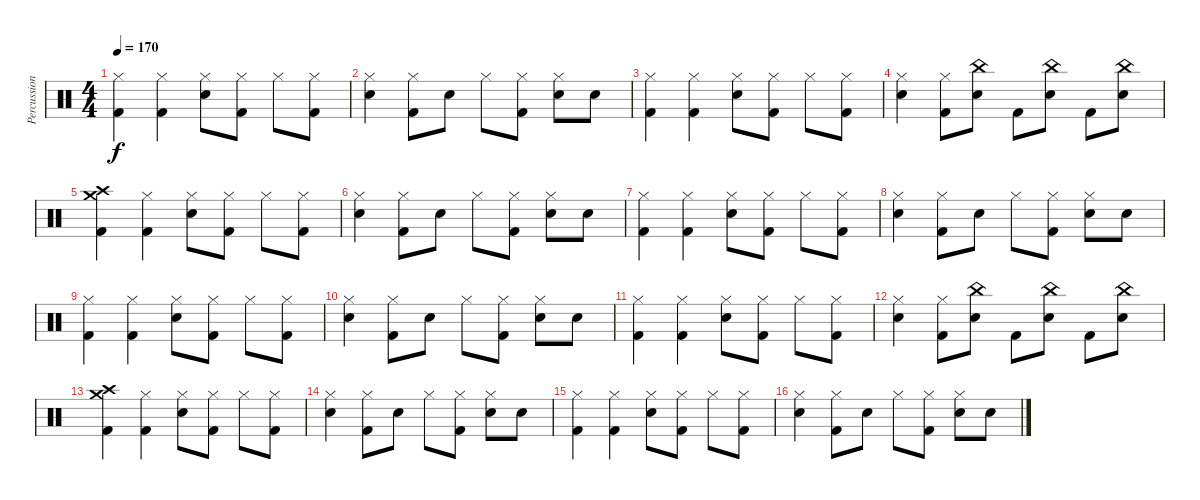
\track ("Percussions" "Percussion") {instrument percussion}
\staff {score}
\articulation defaults
\ts (4 4)
\tempo 170
\clef neutral
\ks c
("Hi-Hat (closed)" "Kick (hit) 2").4{dy f} ("Hi-Hat (closed)" "Kick (hit) 2").4 ("Hi-Hat (closed)" "Electric Snare (hit)").8 ("Hi-Hat (closed)" "Kick (hit) 2").8 "Hi-Hat (closed)".8 ("Hi-Hat (closed)" "Kick (hit) 2").8 |
("Hi-Hat (closed)" "Electric Snare (hit)").4 ("Hi-Hat (closed)" "Kick (hit) 2").8 "Electric Snare (hit)".8 "Hi-Hat (closed)".8 ("Hi-Hat (closed)" "Kick (hit) 2").8 ("Hi-Hat (closed)" "Electric Snare (hit)").8 "Electric Snare (hit)".8 |
("Hi-Hat (closed)" "Kick (hit) 2").4 ("Hi-Hat (closed)" "Kick (hit) 2").4 ("Hi-Hat (closed)" "Electric Snare (hit)").8 ("Hi-Hat (closed)" "Kick (hit) 2").8 "Hi-Hat (closed)".8 ("Hi-Hat (closed)" "Kick (hit) 2").8 |
("Hi-Hat (closed)" "Electric Snare (hit)").4 ("Hi-Hat (closed)" "Kick (hit) 2").8 ("China (hit)" "Electric Snare (hit)").8 "Kick (hit) 2".8 ("China (hit)" "Electric Snare (hit)").8 "Kick (hit) 2".8 ("China (hit)" "Electric Snare (hit)").8 |
("Crash medium (hit)" "Crash high (hit)" "Kick (hit) 2").4 ("Hi-Hat (closed)" "Kick (hit) 2").4 ("Hi-Hat (closed)" "Electric Snare (hit)").8 ("Hi-Hat (closed)" "Kick (hit) 2").8 "Hi-Hat (closed)".8 ("Hi-Hat (closed)" "Kick (hit) 2").8 |
("Hi-Hat (closed)" "Electric Snare (hit)").4 ("Hi-Hat (closed)" "Kick (hit) 2").8 "Electric Snare (hit)".8 "Hi-Hat (closed)".8 ("Hi-Hat (closed)" "Kick (hit) 2").8 ("Hi-Hat (closed)" "Electric Snare (hit)").8 "Electric Snare (hit)".8 |
("Hi-Hat (closed)" "Kick (hit) 2").4 ("Hi-Hat (closed)" "Kick (hit) 2").4 ("Hi-Hat (closed)" "Electric Snare (hit)").8 ("Hi-Hat (closed)" "Kick (hit) 2").8 "Hi-Hat (closed)".8 ("Hi-Hat (closed)" "Kick (hit) 2").8 |
("Hi-Hat (closed)" "Electric Snare (hit)").4 ("Hi-Hat (closed)" "Kick (hit) 2").8 "Electric Snare (hit)".8 "Hi-Hat (closed)".8 ("Hi-Hat (closed)" "Kick (hit) 2").8 ("Hi-Hat (closed)" "Electric Snare (hit)").8 "Electric Snare (hit)".8 |
("Hi-Hat (closed)" "Kick (hit) 2").4 ("Hi-Hat (closed)" "Kick (hit) 2").4 ("Hi-Hat (closed)" "Electric Snare (hit)").8 ("Hi-Hat (closed)" "Kick (hit) 2").8 "Hi-Hat (closed)".8 ("Hi-Hat (closed)" "Kick (hit) 2").8 |
("Hi-Hat (closed)" "Electric Snare (hit)").4 ("Hi-Hat (closed)" "Kick (hit) 2").8 "Electric Snare (hit)".8 "Hi-Hat (closed)".8 ("Hi-Hat (closed)" "Kick (hit) 2").8 ("Hi-Hat (closed)" "Electric Snare (hit)").8 "Electric Snare (hit)".8 |
("Hi-Hat (closed)" "Kick (hit) 2").4 ("Hi-Hat (closed)" "Kick (hit) 2").4 ("Hi-Hat (closed)" "Electric Snare (hit)").8 ("Hi-Hat (closed)" "Kick (hit) 2").8 "Hi-Hat (closed)".8 ("Hi-Hat (closed)" "Kick (hit) 2").8 |
("Hi-Hat (closed)" "Electric Snare (hit)").4 ("Hi-Hat (closed)" "Kick (hit) 2").8 ("China (hit)" "Electric Snare (hit)").8 "Kick (hit) 2".8 ("China (hit)" "Electric Snare (hit)").8 "Kick (hit) 2".8 ("China (hit)" "Electric Snare (hit)").8 |
("Crash medium (hit)" "Crash high (hit)" "Kick (hit) 2").4 ("Hi-Hat (closed)" "Kick (hit) 2").4 ("Hi-Hat (closed)" "Electric Snare (hit)").8 ("Hi-Hat (closed)" "Kick (hit) 2").8 "Hi-Hat (closed)".8 ("Hi-Hat (closed)" "Kick (hit) 2").8 |
("Hi-Hat (closed)" "Electric Snare (hit)").4 ("Hi-Hat (closed)" "Kick (hit) 2").8 "Electric Snare (hit)".8 "Hi-Hat (closed)".8 ("Hi-Hat (closed)" "Kick (hit) 2").8 ("Hi-Hat (closed)" "Electric Snare (hit)").8 "Electric Snare (hit)".8 |
("Hi-Hat (closed)" "Kick (hit) 2").4 ("Hi-Hat (closed)" "Kick (hit) 2").4 ("Hi-Hat (closed)" "Electric Snare (hit)").8 ("Hi-Hat (closed)" "Kick (hit) 2").8 "Hi-Hat (closed)".8 ("Hi-Hat (closed)" "Kick (hit) 2").8 |
("Hi-Hat (closed)" "Electric Snare (hit)").4 ("Hi-Hat (closed)" "Kick (hit) 2").8 "Electric Snare (hit)".8 "Hi-Hat (closed)".8 ("Hi-Hat (closed)" "Kick (hit) 2").8 ("Hi-Hat (closed)" "Electric Snare (hit)").8 "Electric Snare (hit)".8
